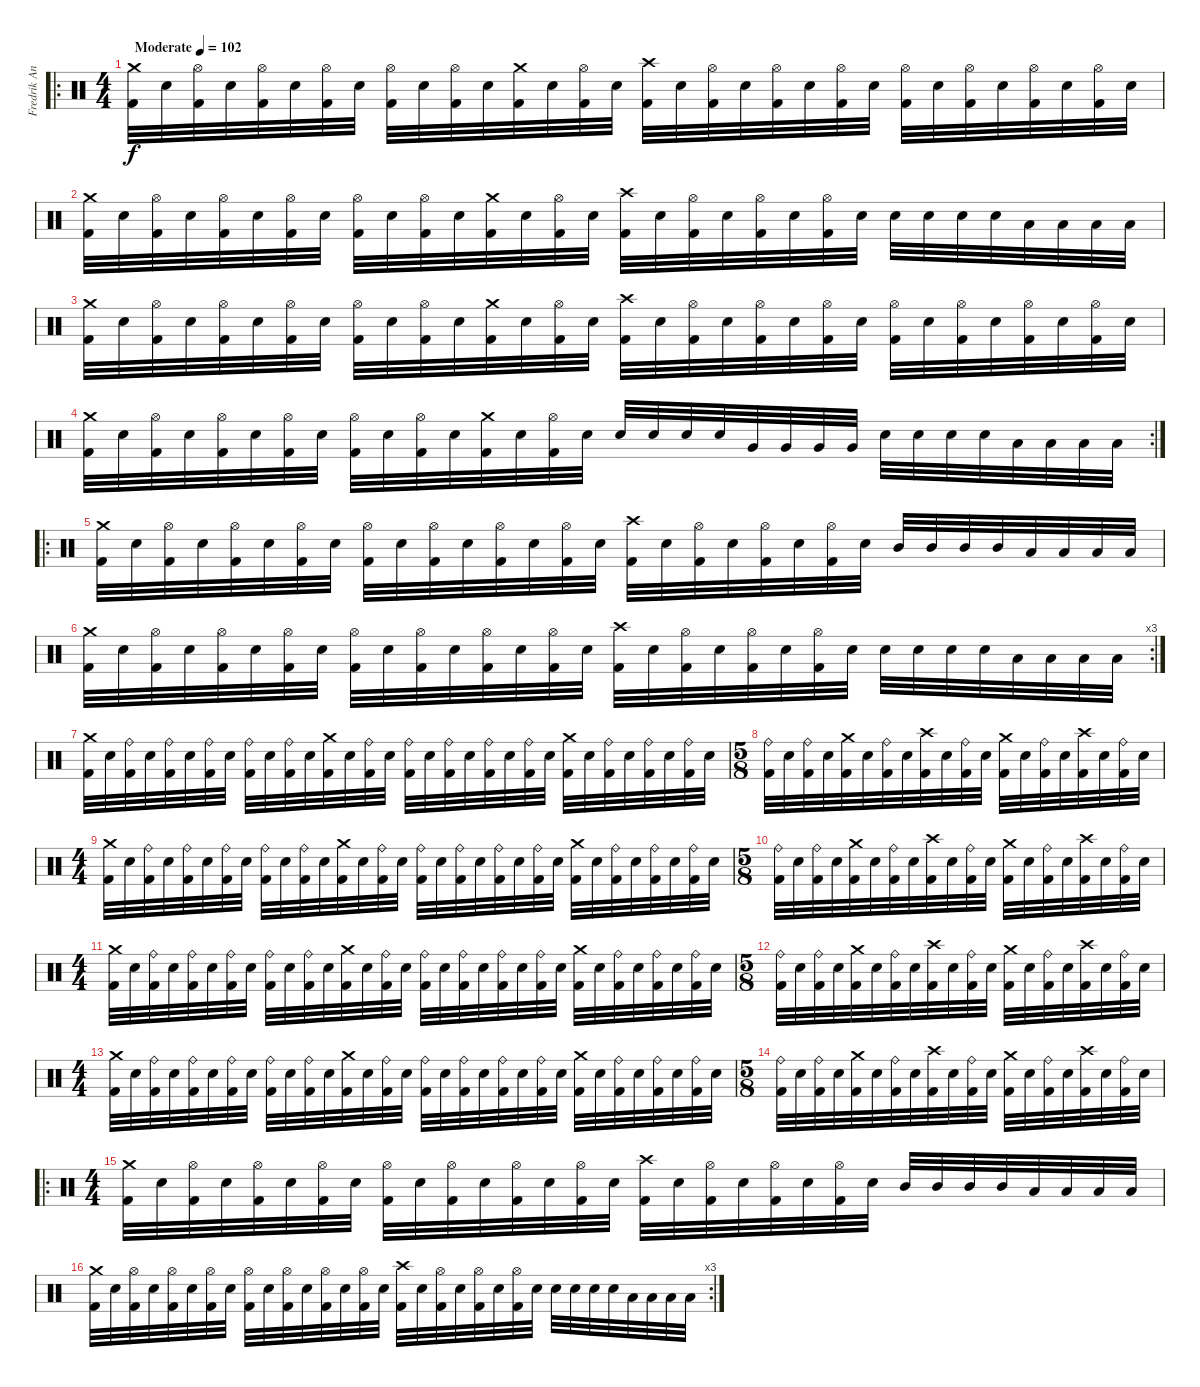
\track ("Fredrik Andersson" "Fredrik An") {instrument percussion}
\staff {score}
\articulation defaults
\ro
\ts (4 4)
\tempo (102 "Moderate")
\clef neutral
\ks c
("Crash medium (hit)" "Kick (hit) 2").32{dy f} "Electric Snare (hit)".32 ("Hi-Hat (open)" "Kick (hit) 2").32 "Electric Snare (hit)".32 ("Hi-Hat (open)" "Kick (hit) 2").32 "Electric Snare (hit)".32 ("Hi-Hat (open)" "Kick (hit) 2").32 "Electric Snare (hit)".32 ("Hi-Hat (open)" "Kick (hit) 2").32 "Electric Snare (hit)".32 ("Hi-Hat (open)" "Kick (hit) 2").32 "Electric Snare (hit)".32 ("Crash medium (hit)" "Kick (hit) 2").32 "Electric Snare (hit)".32 ("Hi-Hat (open)" "Kick (hit) 2").32 "Electric Snare (hit)".32 ("Crash high (hit)" "Kick (hit) 2").32 "Electric Snare (hit)".32 ("Hi-Hat (open)" "Kick (hit) 2").32 "Electric Snare (hit)".32 ("Hi-Hat (open)" "Kick (hit) 2").32 "Electric Snare (hit)".32 ("Hi-Hat (open)" "Kick (hit) 2").32 "Electric Snare (hit)".32 ("Hi-Hat (open)" "Kick (hit) 2").32 "Electric Snare (hit)".32 ("Hi-Hat (open)" "Kick (hit) 2").32 "Electric Snare (hit)".32 ("Hi-Hat (open)" "Kick (hit) 2").32 "Electric Snare (hit)".32 ("Hi-Hat (open)" "Kick (hit) 2").32 "Electric Snare (hit)".32 |
("Crash medium (hit)" "Kick (hit) 2").32 "Electric Snare (hit)".32 ("Hi-Hat (open)" "Kick (hit) 2").32 "Electric Snare (hit)".32 ("Hi-Hat (open)" "Kick (hit) 2").32 "Electric Snare (hit)".32 ("Hi-Hat (open)" "Kick (hit) 2").32 "Electric Snare (hit)".32 ("Hi-Hat (open)" "Kick (hit) 2").32 "Electric Snare (hit)".32 ("Hi-Hat (open)" "Kick (hit) 2").32 "Electric Snare (hit)".32 ("Crash medium (hit)" "Kick (hit) 2").32 "Electric Snare (hit)".32 ("Hi-Hat (open)" "Kick (hit) 2").32 "Electric Snare (hit)".32 ("Crash high (hit)" "Kick (hit) 2").32 "Electric Snare (hit)".32 ("Hi-Hat (open)" "Kick (hit) 2").32 "Electric Snare (hit)".32 ("Hi-Hat (open)" "Kick (hit) 2").32 "Electric Snare (hit)".32 ("Hi-Hat (open)" "Kick (hit) 2").32 "Electric Snare (hit)".32 "Electric Snare (hit)".32 "Electric Snare (hit)".32 "Electric Snare (hit)".32 "Electric Snare (hit)".32 "Low Tom (hit)".32 "Low Tom (hit)".32 "Low Tom (hit)".32 "Low Tom (hit)".32 |
("Crash medium (hit)" "Kick (hit) 2").32 "Electric Snare (hit)".32 ("Hi-Hat (open)" "Kick (hit) 2").32 "Electric Snare (hit)".32 ("Hi-Hat (open)" "Kick (hit) 2").32 "Electric Snare (hit)".32 ("Hi-Hat (open)" "Kick (hit) 2").32 "Electric Snare (hit)".32 ("Hi-Hat (open)" "Kick (hit) 2").32 "Electric Snare (hit)".32 ("Hi-Hat (open)" "Kick (hit) 2").32 "Electric Snare (hit)".32 ("Crash medium (hit)" "Kick (hit) 2").32 "Electric Snare (hit)".32 ("Hi-Hat (open)" "Kick (hit) 2").32 "Electric Snare (hit)".32 ("Crash high (hit)" "Kick (hit) 2").32 "Electric Snare (hit)".32 ("Hi-Hat (open)" "Kick (hit) 2").32 "Electric Snare (hit)".32 ("Hi-Hat (open)" "Kick (hit) 2").32 "Electric Snare (hit)".32 ("Hi-Hat (open)" "Kick (hit) 2").32 "Electric Snare (hit)".32 ("Hi-Hat (open)" "Kick (hit) 2").32 "Electric Snare (hit)".32 ("Hi-Hat (open)" "Kick (hit) 2").32 "Electric Snare (hit)".32 ("Hi-Hat (open)" "Kick (hit) 2").32 "Electric Snare (hit)".32 ("Hi-Hat (open)" "Kick (hit) 2").32 "Electric Snare (hit)".32 |
\rc 2
("Crash medium (hit)" "Kick (hit) 2").32 "Electric Snare (hit)".32 ("Hi-Hat (open)" "Kick (hit) 2").32 "Electric Snare (hit)".32 ("Hi-Hat (open)" "Kick (hit) 2").32 "Electric Snare (hit)".32 ("Hi-Hat (open)" "Kick (hit) 2").32 "Electric Snare (hit)".32 ("Hi-Hat (open)" "Kick (hit) 2").32 "Electric Snare (hit)".32 ("Hi-Hat (open)" "Kick (hit) 2").32 "Electric Snare (hit)".32 ("Crash medium (hit)" "Kick (hit) 2").32 "Electric Snare (hit)".32 ("Hi-Hat (open)" "Kick (hit) 2").32 "Electric Snare (hit)".32 "Electric Snare (hit)".32 "Electric Snare (hit)".32 "Electric Snare (hit)".32 "Electric Snare (hit)".32 "Very Low Tom (hit)".32 "Very Low Tom (hit)".32 "Very Low Tom (hit)".32 "Very Low Tom (hit)".32 "Electric Snare (hit)".32 "Electric Snare (hit)".32 "Electric Snare (hit)".32 "Electric Snare (hit)".32 "Low Tom (hit)".32 "Low Tom (hit)".32 "Low Tom (hit)".32 "Low Tom (hit)".32 |
\ro
("Crash medium (hit)" "Kick (hit) 2").32 "Electric Snare (hit)".32 ("Hi-Hat (open)" "Kick (hit) 2").32 "Electric Snare (hit)".32 ("Hi-Hat (open)" "Kick (hit) 2").32 "Electric Snare (hit)".32 ("Hi-Hat (open)" "Kick (hit) 2").32 "Electric Snare (hit)".32 ("Hi-Hat (open)" "Kick (hit) 2").32 "Electric Snare (hit)".32 ("Hi-Hat (open)" "Kick (hit) 2").32 "Electric Snare (hit)".32 ("Hi-Hat (open)" "Kick (hit) 2").32 "Electric Snare (hit)".32 ("Hi-Hat (open)" "Kick (hit) 2").32 "Electric Snare (hit)".32 ("Crash high (hit)" "Kick (hit) 2").32 "Electric Snare (hit)".32 ("Hi-Hat (open)" "Kick (hit) 2").32 "Electric Snare (hit)".32 ("Hi-Hat (open)" "Kick (hit) 2").32 "Electric Snare (hit)".32 ("Hi-Hat (open)" "Kick (hit) 2").32 "Electric Snare (hit)".32 "Mid Tom (hit)".32 "Mid Tom (hit)".32 "Mid Tom (hit)".32 "Mid Tom (hit)".32 "Low Tom (hit)".32 "Low Tom (hit)".32 "Low Tom (hit)".32 "Low Tom (hit)".32 |
\rc 3
("Crash medium (hit)" "Kick (hit) 2").32 "Electric Snare (hit)".32 ("Hi-Hat (open)" "Kick (hit) 2").32 "Electric Snare (hit)".32 ("Hi-Hat (open)" "Kick (hit) 2").32 "Electric Snare (hit)".32 ("Hi-Hat (open)" "Kick (hit) 2").32 "Electric Snare (hit)".32 ("Hi-Hat (open)" "Kick (hit) 2").32 "Electric Snare (hit)".32 ("Hi-Hat (open)" "Kick (hit) 2").32 "Electric Snare (hit)".32 ("Hi-Hat (open)" "Kick (hit) 2").32 "Electric Snare (hit)".32 ("Hi-Hat (open)" "Kick (hit) 2").32 "Electric Snare (hit)".32 ("Crash high (hit)" "Kick (hit) 2").32 "Electric Snare (hit)".32 ("Hi-Hat (open)" "Kick (hit) 2").32 "Electric Snare (hit)".32 ("Hi-Hat (open)" "Kick (hit) 2").32 "Electric Snare (hit)".32 ("Hi-Hat (open)" "Kick (hit) 2").32 "Electric Snare (hit)".32 "Electric Snare (hit)".32 "Electric Snare (hit)".32 "Electric Snare (hit)".32 "Electric Snare (hit)".32 "Low Tom (hit)".32 "Low Tom (hit)".32 "Low Tom (hit)".32 "Low Tom (hit)".32 |
("Crash medium (hit)" "Kick (hit) 2").32 "Electric Snare (hit)".32 ("Ride (bell)" "Kick (hit) 2").32 "Electric Snare (hit)".32 ("Ride (bell)" "Kick (hit) 2").32 "Electric Snare (hit)".32 ("Ride (bell)" "Kick (hit) 2").32 "Electric Snare (hit)".32 ("Ride (bell)" "Kick (hit) 2").32 "Electric Snare (hit)".32 ("Ride (bell)" "Kick (hit) 2").32 "Electric Snare (hit)".32 ("Crash medium (hit)" "Kick (hit) 2").32 "Electric Snare (hit)".32 ("Ride (bell)" "Kick (hit) 2").32 "Electric Snare (hit)".32 ("Ride (bell)" "Kick (hit) 2").32 "Electric Snare (hit)".32 ("Ride (bell)" "Kick (hit) 2").32 "Electric Snare (hit)".32 ("Ride (bell)" "Kick (hit) 2").32 "Electric Snare (hit)".32 ("Ride (bell)" "Kick (hit) 2").32 "Electric Snare (hit)".32 ("Crash medium (hit)" "Kick (hit) 2").32 "Electric Snare (hit)".32 ("Ride (bell)" "Kick (hit) 2").32 "Electric Snare (hit)".32 ("Ride (bell)" "Kick (hit) 2").32 "Electric Snare (hit)".32 ("Ride (bell)" "Kick (hit) 2").32 "Electric Snare (hit)".32 |
\ts (5 8)
("Ride (bell)" "Kick (hit) 2").32 "Electric Snare (hit)".32 ("Ride (bell)" "Kick (hit) 2").32 "Electric Snare (hit)".32 ("Crash medium (hit)" "Kick (hit) 2").32 "Electric Snare (hit)".32 ("Ride (bell)" "Kick (hit) 2").32 "Electric Snare (hit)".32 ("Crash high (hit)" "Kick (hit) 2").32 "Electric Snare (hit)".32 ("Ride (bell)" "Kick (hit) 2").32 "Electric Snare (hit)".32 ("Crash medium (hit)" "Kick (hit) 2").32 "Electric Snare (hit)".32 ("Ride (bell)" "Kick (hit) 2").32 "Electric Snare (hit)".32 ("Crash high (hit)" "Kick (hit) 2").32 "Electric Snare (hit)".32 ("Ride (bell)" "Kick (hit) 2").32 "Electric Snare (hit)".32 |
\ts (4 4)
("Crash medium (hit)" "Kick (hit) 2").32 "Electric Snare (hit)".32 ("Ride (bell)" "Kick (hit) 2").32 "Electric Snare (hit)".32 ("Ride (bell)" "Kick (hit) 2").32 "Electric Snare (hit)".32 ("Ride (bell)" "Kick (hit) 2").32 "Electric Snare (hit)".32 ("Ride (bell)" "Kick (hit) 2").32 "Electric Snare (hit)".32 ("Ride (bell)" "Kick (hit) 2").32 "Electric Snare (hit)".32 ("Crash medium (hit)" "Kick (hit) 2").32 "Electric Snare (hit)".32 ("Ride (bell)" "Kick (hit) 2").32 "Electric Snare (hit)".32 ("Ride (bell)" "Kick (hit) 2").32 "Electric Snare (hit)".32 ("Ride (bell)" "Kick (hit) 2").32 "Electric Snare (hit)".32 ("Ride (bell)" "Kick (hit) 2").32 "Electric Snare (hit)".32 ("Ride (bell)" "Kick (hit) 2").32 "Electric Snare (hit)".32 ("Crash medium (hit)" "Kick (hit) 2").32 "Electric Snare (hit)".32 ("Ride (bell)" "Kick (hit) 2").32 "Electric Snare (hit)".32 ("Ride (bell)" "Kick (hit) 2").32 "Electric Snare (hit)".32 ("Ride (bell)" "Kick (hit) 2").32 "Electric Snare (hit)".32 |
\ts (5 8)
("Ride (bell)" "Kick (hit) 2").32 "Electric Snare (hit)".32 ("Ride (bell)" "Kick (hit) 2").32 "Electric Snare (hit)".32 ("Crash medium (hit)" "Kick (hit) 2").32 "Electric Snare (hit)".32 ("Ride (bell)" "Kick (hit) 2").32 "Electric Snare (hit)".32 ("Crash high (hit)" "Kick (hit) 2").32 "Electric Snare (hit)".32 ("Ride (bell)" "Kick (hit) 2").32 "Electric Snare (hit)".32 ("Crash medium (hit)" "Kick (hit) 2").32 "Electric Snare (hit)".32 ("Ride (bell)" "Kick (hit) 2").32 "Electric Snare (hit)".32 ("Crash high (hit)" "Kick (hit) 2").32 "Electric Snare (hit)".32 ("Ride (bell)" "Kick (hit) 2").32 "Electric Snare (hit)".32 |
\ts (4 4)
("Crash medium (hit)" "Kick (hit) 2").32 "Electric Snare (hit)".32 ("Ride (bell)" "Kick (hit) 2").32 "Electric Snare (hit)".32 ("Ride (bell)" "Kick (hit) 2").32 "Electric Snare (hit)".32 ("Ride (bell)" "Kick (hit) 2").32 "Electric Snare (hit)".32 ("Ride (bell)" "Kick (hit) 2").32 "Electric Snare (hit)".32 ("Ride (bell)" "Kick (hit) 2").32 "Electric Snare (hit)".32 ("Crash medium (hit)" "Kick (hit) 2").32 "Electric Snare (hit)".32 ("Ride (bell)" "Kick (hit) 2").32 "Electric Snare (hit)".32 ("Ride (bell)" "Kick (hit) 2").32 "Electric Snare (hit)".32 ("Ride (bell)" "Kick (hit) 2").32 "Electric Snare (hit)".32 ("Ride (bell)" "Kick (hit) 2").32 "Electric Snare (hit)".32 ("Ride (bell)" "Kick (hit) 2").32 "Electric Snare (hit)".32 ("Crash medium (hit)" "Kick (hit) 2").32 "Electric Snare (hit)".32 ("Ride (bell)" "Kick (hit) 2").32 "Electric Snare (hit)".32 ("Ride (bell)" "Kick (hit) 2").32 "Electric Snare (hit)".32 ("Ride (bell)" "Kick (hit) 2").32 "Electric Snare (hit)".32 |
\ts (5 8)
("Ride (bell)" "Kick (hit) 2").32 "Electric Snare (hit)".32 ("Ride (bell)" "Kick (hit) 2").32 "Electric Snare (hit)".32 ("Crash medium (hit)" "Kick (hit) 2").32 "Electric Snare (hit)".32 ("Ride (bell)" "Kick (hit) 2").32 "Electric Snare (hit)".32 ("Crash high (hit)" "Kick (hit) 2").32 "Electric Snare (hit)".32 ("Ride (bell)" "Kick (hit) 2").32 "Electric Snare (hit)".32 ("Crash medium (hit)" "Kick (hit) 2").32 "Electric Snare (hit)".32 ("Ride (bell)" "Kick (hit) 2").32 "Electric Snare (hit)".32 ("Crash high (hit)" "Kick (hit) 2").32 "Electric Snare (hit)".32 ("Ride (bell)" "Kick (hit) 2").32 "Electric Snare (hit)".32 |
\ts (4 4)
("Crash medium (hit)" "Kick (hit) 2").32 "Electric Snare (hit)".32 ("Ride (bell)" "Kick (hit) 2").32 "Electric Snare (hit)".32 ("Ride (bell)" "Kick (hit) 2").32 "Electric Snare (hit)".32 ("Ride (bell)" "Kick (hit) 2").32 "Electric Snare (hit)".32 ("Ride (bell)" "Kick (hit) 2").32 "Electric Snare (hit)".32 ("Ride (bell)" "Kick (hit) 2").32 "Electric Snare (hit)".32 ("Crash medium (hit)" "Kick (hit) 2").32 "Electric Snare (hit)".32 ("Ride (bell)" "Kick (hit) 2").32 "Electric Snare (hit)".32 ("Ride (bell)" "Kick (hit) 2").32 "Electric Snare (hit)".32 ("Ride (bell)" "Kick (hit) 2").32 "Electric Snare (hit)".32 ("Ride (bell)" "Kick (hit) 2").32 "Electric Snare (hit)".32 ("Ride (bell)" "Kick (hit) 2").32 "Electric Snare (hit)".32 ("Crash medium (hit)" "Kick (hit) 2").32 "Electric Snare (hit)".32 ("Ride (bell)" "Kick (hit) 2").32 "Electric Snare (hit)".32 ("Ride (bell)" "Kick (hit) 2").32 "Electric Snare (hit)".32 ("Ride (bell)" "Kick (hit) 2").32 "Electric Snare (hit)".32 |
\ts (5 8)
("Ride (bell)" "Kick (hit) 2").32 "Electric Snare (hit)".32 ("Ride (bell)" "Kick (hit) 2").32 "Electric Snare (hit)".32 ("Crash medium (hit)" "Kick (hit) 2").32 "Electric Snare (hit)".32 ("Ride (bell)" "Kick (hit) 2").32 "Electric Snare (hit)".32 ("Crash high (hit)" "Kick (hit) 2").32 "Electric Snare (hit)".32 ("Ride (bell)" "Kick (hit) 2").32 "Electric Snare (hit)".32 ("Crash medium (hit)" "Kick (hit) 2").32 "Electric Snare (hit)".32 ("Ride (bell)" "Kick (hit) 2").32 "Electric Snare (hit)".32 ("Crash high (hit)" "Kick (hit) 2").32 "Electric Snare (hit)".32 ("Ride (bell)" "Kick (hit) 2").32 "Electric Snare (hit)".32 |
\ro
\ts (4 4)
("Crash medium (hit)" "Kick (hit) 2").32 "Electric Snare (hit)".32 ("Hi-Hat (open)" "Kick (hit) 2").32 "Electric Snare (hit)".32 ("Hi-Hat (open)" "Kick (hit) 2").32 "Electric Snare (hit)".32 ("Hi-Hat (open)" "Kick (hit) 2").32 "Electric Snare (hit)".32 ("Hi-Hat (open)" "Kick (hit) 2").32 "Electric Snare (hit)".32 ("Hi-Hat (open)" "Kick (hit) 2").32 "Electric Snare (hit)".32 ("Hi-Hat (open)" "Kick (hit) 2").32 "Electric Snare (hit)".32 ("Hi-Hat (open)" "Kick (hit) 2").32 "Electric Snare (hit)".32 ("Crash high (hit)" "Kick (hit) 2").32 "Electric Snare (hit)".32 ("Hi-Hat (open)" "Kick (hit) 2").32 "Electric Snare (hit)".32 ("Hi-Hat (open)" "Kick (hit) 2").32 "Electric Snare (hit)".32 ("Hi-Hat (open)" "Kick (hit) 2").32 "Electric Snare (hit)".32 "Mid Tom (hit)".32 "Mid Tom (hit)".32 "Mid Tom (hit)".32 "Mid Tom (hit)".32 "Low Tom (hit)".32 "Low Tom (hit)".32 "Low Tom (hit)".32 "Low Tom (hit)".32 |
\rc 3
("Crash medium (hit)" "Kick (hit) 2").32 "Electric Snare (hit)".32 ("Hi-Hat (open)" "Kick (hit) 2").32 "Electric Snare (hit)".32 ("Hi-Hat (open)" "Kick (hit) 2").32 "Electric Snare (hit)".32 ("Hi-Hat (open)" "Kick (hit) 2").32 "Electric Snare (hit)".32 ("Hi-Hat (open)" "Kick (hit) 2").32 "Electric Snare (hit)".32 ("Hi-Hat (open)" "Kick (hit) 2").32 "Electric Snare (hit)".32 ("Hi-Hat (open)" "Kick (hit) 2").32 "Electric Snare (hit)".32 ("Hi-Hat (open)" "Kick (hit) 2").32 "Electric Snare (hit)".32 ("Crash high (hit)" "Kick (hit) 2").32 "Electric Snare (hit)".32 ("Hi-Hat (open)" "Kick (hit) 2").32 "Electric Snare (hit)".32 ("Hi-Hat (open)" "Kick (hit) 2").32 "Electric Snare (hit)".32 ("Hi-Hat (open)" "Kick (hit) 2").32 "Electric Snare (hit)".32 "Electric Snare (hit)".32 "Electric Snare (hit)".32 "Electric Snare (hit)".32 "Electric Snare (hit)".32 "Low Tom (hit)".32 "Low Tom (hit)".32 "Low Tom (hit)".32 "Low Tom (hit)".32
